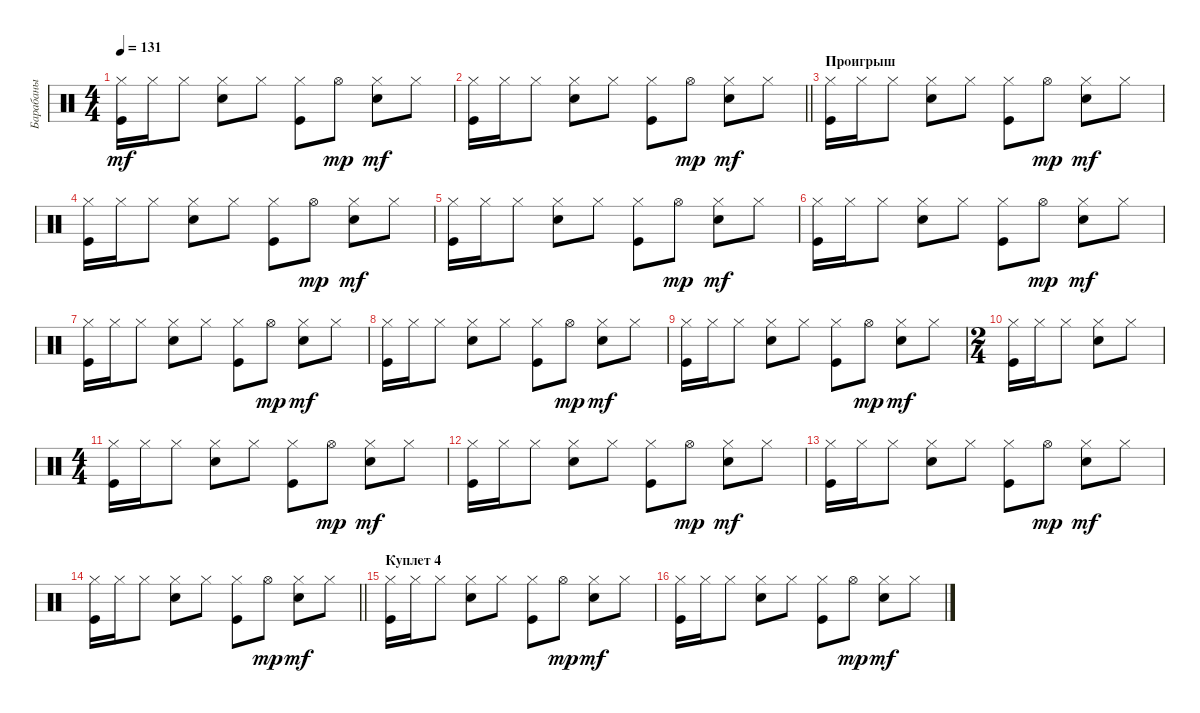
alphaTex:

\track ("Барабаны" "Барабаны") {instrument percussion}
\staff {score}
\articulation defaults
\ts (4 4)
\tempo 131
\clef neutral
\ks c
("Kick (hit)" "Hi-Hat (closed)").16{dy mf} "Hi-Hat (closed)".16 "Hi-Hat (closed)".8 ("Snare (hit) 2" "Hi-Hat (closed)").8 "Hi-Hat (closed)".8 ("Kick (hit)" "Hi-Hat (closed)").8 "Hi-Hat (open)".8{dy mp} ("Snare (hit) 2" "Hi-Hat (closed)").8{dy mf} "Hi-Hat (closed)".8 |
\barLineRight lightlight
("Kick (hit)" "Hi-Hat (closed)").16 "Hi-Hat (closed)".16 "Hi-Hat (closed)".8 ("Snare (hit) 2" "Hi-Hat (closed)").8 "Hi-Hat (closed)".8 ("Kick (hit)" "Hi-Hat (closed)").8 "Hi-Hat (open)".8{dy mp} ("Snare (hit) 2" "Hi-Hat (closed)").8{dy mf} "Hi-Hat (closed)".8 |
\section ("" "Проигрыш")
("Kick (hit)" "Hi-Hat (closed)").16 "Hi-Hat (closed)".16 "Hi-Hat (closed)".8 ("Snare (hit) 2" "Hi-Hat (closed)").8 "Hi-Hat (closed)".8 ("Kick (hit)" "Hi-Hat (closed)").8 "Hi-Hat (open)".8{dy mp} ("Snare (hit) 2" "Hi-Hat (closed)").8{dy mf} "Hi-Hat (closed)".8 |
("Kick (hit)" "Hi-Hat (closed)").16 "Hi-Hat (closed)".16 "Hi-Hat (closed)".8 ("Snare (hit) 2" "Hi-Hat (closed)").8 "Hi-Hat (closed)".8 ("Kick (hit)" "Hi-Hat (closed)").8 "Hi-Hat (open)".8{dy mp} ("Snare (hit) 2" "Hi-Hat (closed)").8{dy mf} "Hi-Hat (closed)".8 |
("Kick (hit)" "Hi-Hat (closed)").16 "Hi-Hat (closed)".16 "Hi-Hat (closed)".8 ("Snare (hit) 2" "Hi-Hat (closed)").8 "Hi-Hat (closed)".8 ("Kick (hit)" "Hi-Hat (closed)").8 "Hi-Hat (open)".8{dy mp} ("Snare (hit) 2" "Hi-Hat (closed)").8{dy mf} "Hi-Hat (closed)".8 |
("Kick (hit)" "Hi-Hat (closed)").16 "Hi-Hat (closed)".16 "Hi-Hat (closed)".8 ("Snare (hit) 2" "Hi-Hat (closed)").8 "Hi-Hat (closed)".8 ("Kick (hit)" "Hi-Hat (closed)").8 "Hi-Hat (open)".8{dy mp} ("Snare (hit) 2" "Hi-Hat (closed)").8{dy mf} "Hi-Hat (closed)".8 |
("Kick (hit)" "Hi-Hat (closed)").16 "Hi-Hat (closed)".16 "Hi-Hat (closed)".8 ("Snare (hit) 2" "Hi-Hat (closed)").8 "Hi-Hat (closed)".8 ("Kick (hit)" "Hi-Hat (closed)").8 "Hi-Hat (open)".8{dy mp} ("Snare (hit) 2" "Hi-Hat (closed)").8{dy mf} "Hi-Hat (closed)".8 |
("Kick (hit)" "Hi-Hat (closed)").16 "Hi-Hat (closed)".16 "Hi-Hat (closed)".8 ("Snare (hit) 2" "Hi-Hat (closed)").8 "Hi-Hat (closed)".8 ("Kick (hit)" "Hi-Hat (closed)").8 "Hi-Hat (open)".8{dy mp} ("Snare (hit) 2" "Hi-Hat (closed)").8{dy mf} "Hi-Hat (closed)".8 |
("Kick (hit)" "Hi-Hat (closed)").16 "Hi-Hat (closed)".16 "Hi-Hat (closed)".8 ("Snare (hit) 2" "Hi-Hat (closed)").8 "Hi-Hat (closed)".8 ("Kick (hit)" "Hi-Hat (closed)").8 "Hi-Hat (open)".8{dy mp} ("Snare (hit) 2" "Hi-Hat (closed)").8{dy mf} "Hi-Hat (closed)".8 |
\ts (2 4)
("Kick (hit)" "Hi-Hat (closed)").16 "Hi-Hat (closed)".16 "Hi-Hat (closed)".8 ("Snare (hit) 2" "Hi-Hat (closed)").8 "Hi-Hat (closed)".8 |
\ts (4 4)
("Kick (hit)" "Hi-Hat (closed)").16 "Hi-Hat (closed)".16 "Hi-Hat (closed)".8 ("Snare (hit) 2" "Hi-Hat (closed)").8 "Hi-Hat (closed)".8 ("Kick (hit)" "Hi-Hat (closed)").8 "Hi-Hat (open)".8{dy mp} ("Snare (hit) 2" "Hi-Hat (closed)").8{dy mf} "Hi-Hat (closed)".8 |
("Kick (hit)" "Hi-Hat (closed)").16 "Hi-Hat (closed)".16 "Hi-Hat (closed)".8 ("Snare (hit) 2" "Hi-Hat (closed)").8 "Hi-Hat (closed)".8 ("Kick (hit)" "Hi-Hat (closed)").8 "Hi-Hat (open)".8{dy mp} ("Snare (hit) 2" "Hi-Hat (closed)").8{dy mf} "Hi-Hat (closed)".8 |
("Kick (hit)" "Hi-Hat (closed)").16 "Hi-Hat (closed)".16 "Hi-Hat (closed)".8 ("Snare (hit) 2" "Hi-Hat (closed)").8 "Hi-Hat (closed)".8 ("Kick (hit)" "Hi-Hat (closed)").8 "Hi-Hat (open)".8{dy mp} ("Snare (hit) 2" "Hi-Hat (closed)").8{dy mf} "Hi-Hat (closed)".8 |
\barLineRight lightlight
("Kick (hit)" "Hi-Hat (closed)").16 "Hi-Hat (closed)".16 "Hi-Hat (closed)".8 ("Snare (hit) 2" "Hi-Hat (closed)").8 "Hi-Hat (closed)".8 ("Kick (hit)" "Hi-Hat (closed)").8 "Hi-Hat (open)".8{dy mp} ("Snare (hit) 2" "Hi-Hat (closed)").8{dy mf} "Hi-Hat (closed)".8 |
\section ("" "Куплет 4")
("Kick (hit)" "Hi-Hat (closed)").16 "Hi-Hat (closed)".16 "Hi-Hat (closed)".8 ("Snare (hit) 2" "Hi-Hat (closed)").8 "Hi-Hat (closed)".8 ("Kick (hit)" "Hi-Hat (closed)").8 "Hi-Hat (open)".8{dy mp} ("Snare (hit) 2" "Hi-Hat (closed)").8{dy mf} "Hi-Hat (closed)".8 |
("Kick (hit)" "Hi-Hat (closed)").16 "Hi-Hat (closed)".16 "Hi-Hat (closed)".8 ("Snare (hit) 2" "Hi-Hat (closed)").8 "Hi-Hat (closed)".8 ("Kick (hit)" "Hi-Hat (closed)").8 "Hi-Hat (open)".8{dy mp} ("Snare (hit) 2" "Hi-Hat (closed)").8{dy mf} "Hi-Hat (closed)".8
